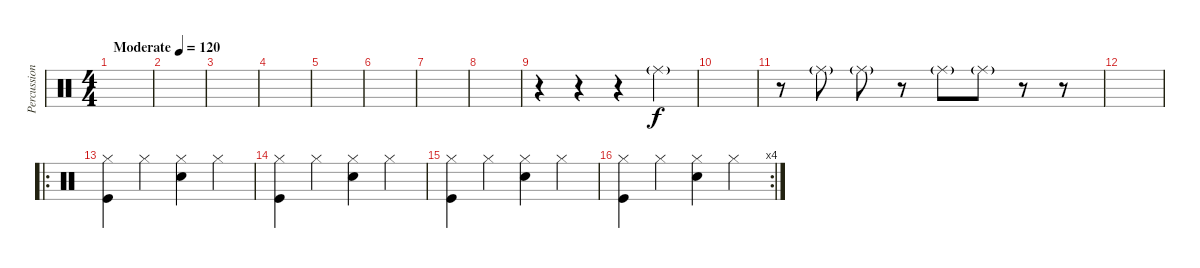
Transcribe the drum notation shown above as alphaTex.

\track ("Percussion" "Percussion") {instrument percussion}
\staff {score}
\articulation defaults
\ts (4 4)
\tempo (120 "Moderate")
\clef neutral
\ks c
|
|
|
|
|
|
|
|
r.4 r.4 r.4 "Ride (middle)"{g}.4 |
|
r.8 "Ride (middle)"{g}.8 "Ride (middle)"{g}.8 r.8 "Ride (middle)"{g}.8 "Ride (middle)"{g}.8 r.8 r.8 |
|
\ro
("Hi-Hat (closed)" "Kick (hit)").4{dy f} "Hi-Hat (closed)".4 ("Hi-Hat (closed)" "Snare (hit) 2").4 "Hi-Hat (closed)".4 |
("Hi-Hat (closed)" "Kick (hit)").4 "Hi-Hat (closed)".4 ("Hi-Hat (closed)" "Snare (hit) 2").4 "Hi-Hat (closed)".4 |
("Hi-Hat (closed)" "Kick (hit)").4 "Hi-Hat (closed)".4 ("Hi-Hat (closed)" "Snare (hit) 2").4 "Hi-Hat (closed)".4 |
\rc 4
("Hi-Hat (closed)" "Kick (hit)").4 "Hi-Hat (closed)".4 ("Hi-Hat (closed)" "Snare (hit) 2").4 "Hi-Hat (closed)".4
